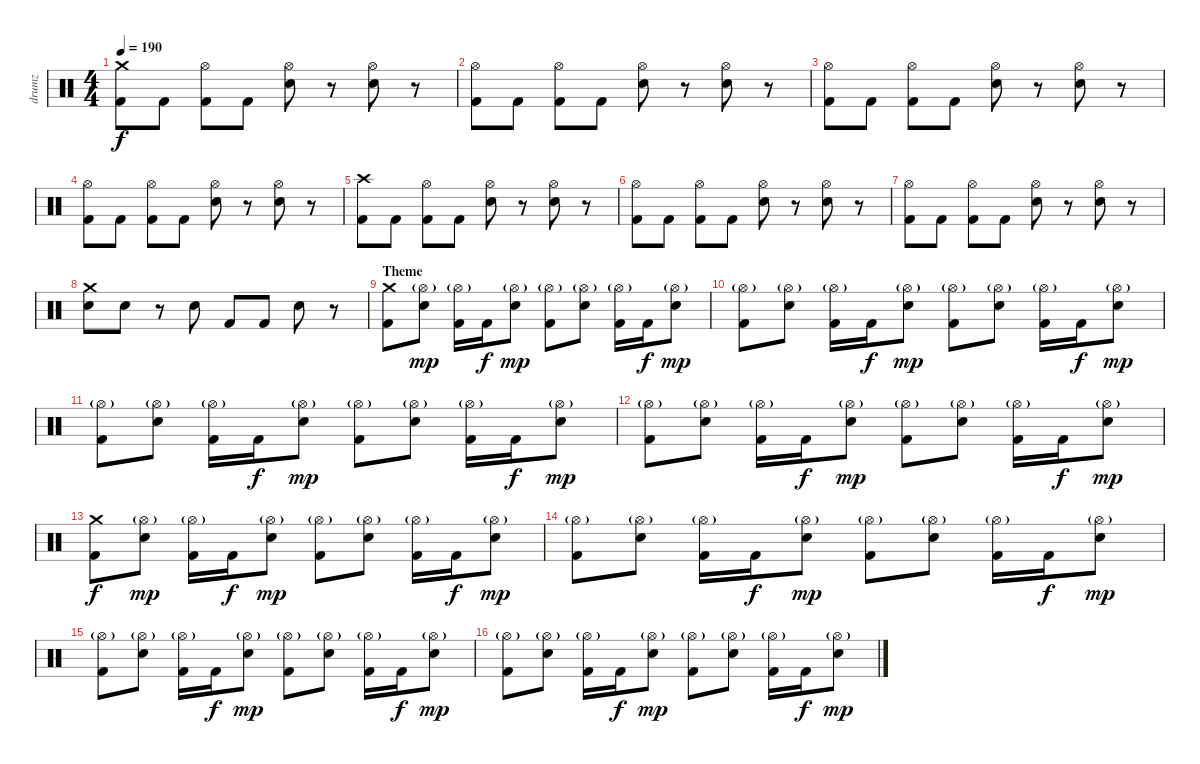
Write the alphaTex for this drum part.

\track ("drumz" "drumz") {instrument percussion}
\staff {score}
\articulation defaults
\ts (4 4)
\tempo 190
\clef neutral
\ks c
("Crash medium (hit)" "Kick (hit) 2").8{dy f} "Kick (hit) 2".8 ("Hi-Hat (open)" "Kick (hit) 2").8 "Kick (hit) 2".8 ("Hi-Hat (open)" "Electric Snare (hit)").8 r.8 ("Hi-Hat (open)" "Electric Snare (hit)").8 r.8 |
("Hi-Hat (open)" "Kick (hit) 2").8 "Kick (hit) 2".8 ("Hi-Hat (open)" "Kick (hit) 2").8 "Kick (hit) 2".8 ("Hi-Hat (open)" "Electric Snare (hit)").8 r.8 ("Hi-Hat (open)" "Electric Snare (hit)").8 r.8 |
("Hi-Hat (open)" "Kick (hit) 2").8 "Kick (hit) 2".8 ("Hi-Hat (open)" "Kick (hit) 2").8 "Kick (hit) 2".8 ("Hi-Hat (open)" "Electric Snare (hit)").8 r.8 ("Hi-Hat (open)" "Electric Snare (hit)").8 r.8 |
("Hi-Hat (open)" "Kick (hit) 2").8 "Kick (hit) 2".8 ("Hi-Hat (open)" "Kick (hit) 2").8 "Kick (hit) 2".8 ("Hi-Hat (open)" "Electric Snare (hit)").8 r.8 ("Hi-Hat (open)" "Electric Snare (hit)").8 r.8 |
("Crash high (hit)" "Kick (hit) 2").8 "Kick (hit) 2".8 ("Hi-Hat (open)" "Kick (hit) 2").8 "Kick (hit) 2".8 ("Hi-Hat (open)" "Electric Snare (hit)").8 r.8 ("Hi-Hat (open)" "Electric Snare (hit)").8 r.8 |
("Hi-Hat (open)" "Kick (hit) 2").8 "Kick (hit) 2".8 ("Hi-Hat (open)" "Kick (hit) 2").8 "Kick (hit) 2".8 ("Hi-Hat (open)" "Electric Snare (hit)").8 r.8 ("Hi-Hat (open)" "Electric Snare (hit)").8 r.8 |
("Hi-Hat (open)" "Kick (hit) 2").8 "Kick (hit) 2".8 ("Hi-Hat (open)" "Kick (hit) 2").8 "Kick (hit) 2".8 ("Hi-Hat (open)" "Electric Snare (hit)").8 r.8 ("Hi-Hat (open)" "Electric Snare (hit)").8 r.8 |
("Crash medium (hit)" "Electric Snare (hit)").8 "Electric Snare (hit)".8 r.8 "Electric Snare (hit)".8 "Kick (hit) 2".8 "Kick (hit) 2".8 "Electric Snare (hit)".8 r.8 |
\section ("" "Theme")
("Crash medium (hit)" "Kick (hit) 2").8 ("Hi-Hat (open)"{g} "Electric Snare (hit)").8{dy mp} ("Hi-Hat (open)"{g} "Kick (hit) 2").16 "Kick (hit) 2".16{dy f} ("Hi-Hat (open)"{g} "Electric Snare (hit)").8{dy mp} ("Hi-Hat (open)"{g} "Kick (hit) 2").8 ("Hi-Hat (open)"{g} "Electric Snare (hit)").8 ("Hi-Hat (open)"{g} "Kick (hit) 2").16 "Kick (hit) 2".16{dy f} ("Hi-Hat (open)"{g} "Electric Snare (hit)").8{dy mp} |
("Hi-Hat (open)"{g} "Kick (hit) 2").8 ("Hi-Hat (open)"{g} "Electric Snare (hit)").8 ("Hi-Hat (open)"{g} "Kick (hit) 2").16 "Kick (hit) 2".16{dy f} ("Hi-Hat (open)"{g} "Electric Snare (hit)").8{dy mp} ("Hi-Hat (open)"{g} "Kick (hit) 2").8 ("Hi-Hat (open)"{g} "Electric Snare (hit)").8 ("Hi-Hat (open)"{g} "Kick (hit) 2").16 "Kick (hit) 2".16{dy f} ("Hi-Hat (open)"{g} "Electric Snare (hit)").8{dy mp} |
("Hi-Hat (open)"{g} "Kick (hit) 2").8 ("Hi-Hat (open)"{g} "Electric Snare (hit)").8 ("Hi-Hat (open)"{g} "Kick (hit) 2").16 "Kick (hit) 2".16{dy f} ("Hi-Hat (open)"{g} "Electric Snare (hit)").8{dy mp} ("Hi-Hat (open)"{g} "Kick (hit) 2").8 ("Hi-Hat (open)"{g} "Electric Snare (hit)").8 ("Hi-Hat (open)"{g} "Kick (hit) 2").16 "Kick (hit) 2".16{dy f} ("Hi-Hat (open)"{g} "Electric Snare (hit)").8{dy mp} |
("Hi-Hat (open)"{g} "Kick (hit) 2").8 ("Hi-Hat (open)"{g} "Electric Snare (hit)").8 ("Hi-Hat (open)"{g} "Kick (hit) 2").16 "Kick (hit) 2".16{dy f} ("Hi-Hat (open)"{g} "Electric Snare (hit)").8{dy mp} ("Hi-Hat (open)"{g} "Kick (hit) 2").8 ("Hi-Hat (open)"{g} "Electric Snare (hit)").8 ("Hi-Hat (open)"{g} "Kick (hit) 2").16 "Kick (hit) 2".16{dy f} ("Hi-Hat (open)"{g} "Electric Snare (hit)").8{dy mp} |
("Crash medium (hit)" "Kick (hit) 2").8{dy f} ("Hi-Hat (open)"{g} "Electric Snare (hit)").8{dy mp} ("Hi-Hat (open)"{g} "Kick (hit) 2").16 "Kick (hit) 2".16{dy f} ("Hi-Hat (open)"{g} "Electric Snare (hit)").8{dy mp} ("Hi-Hat (open)"{g} "Kick (hit) 2").8 ("Hi-Hat (open)"{g} "Electric Snare (hit)").8 ("Hi-Hat (open)"{g} "Kick (hit) 2").16 "Kick (hit) 2".16{dy f} ("Hi-Hat (open)"{g} "Electric Snare (hit)").8{dy mp} |
("Hi-Hat (open)"{g} "Kick (hit) 2").8 ("Hi-Hat (open)"{g} "Electric Snare (hit)").8 ("Hi-Hat (open)"{g} "Kick (hit) 2").16 "Kick (hit) 2".16{dy f} ("Hi-Hat (open)"{g} "Electric Snare (hit)").8{dy mp} ("Hi-Hat (open)"{g} "Kick (hit) 2").8 ("Hi-Hat (open)"{g} "Electric Snare (hit)").8 ("Hi-Hat (open)"{g} "Kick (hit) 2").16 "Kick (hit) 2".16{dy f} ("Hi-Hat (open)"{g} "Electric Snare (hit)").8{dy mp} |
("Hi-Hat (open)"{g} "Kick (hit) 2").8 ("Hi-Hat (open)"{g} "Electric Snare (hit)").8 ("Hi-Hat (open)"{g} "Kick (hit) 2").16 "Kick (hit) 2".16{dy f} ("Hi-Hat (open)"{g} "Electric Snare (hit)").8{dy mp} ("Hi-Hat (open)"{g} "Kick (hit) 2").8 ("Hi-Hat (open)"{g} "Electric Snare (hit)").8 ("Hi-Hat (open)"{g} "Kick (hit) 2").16 "Kick (hit) 2".16{dy f} ("Hi-Hat (open)"{g} "Electric Snare (hit)").8{dy mp} |
("Hi-Hat (open)"{g} "Kick (hit) 2").8 ("Hi-Hat (open)"{g} "Electric Snare (hit)").8 ("Hi-Hat (open)"{g} "Kick (hit) 2").16 "Kick (hit) 2".16{dy f} ("Hi-Hat (open)"{g} "Electric Snare (hit)").8{dy mp} ("Hi-Hat (open)"{g} "Kick (hit) 2").8 ("Hi-Hat (open)"{g} "Electric Snare (hit)").8 ("Hi-Hat (open)"{g} "Kick (hit) 2").16 "Kick (hit) 2".16{dy f} ("Hi-Hat (open)"{g} "Electric Snare (hit)").8{dy mp}
